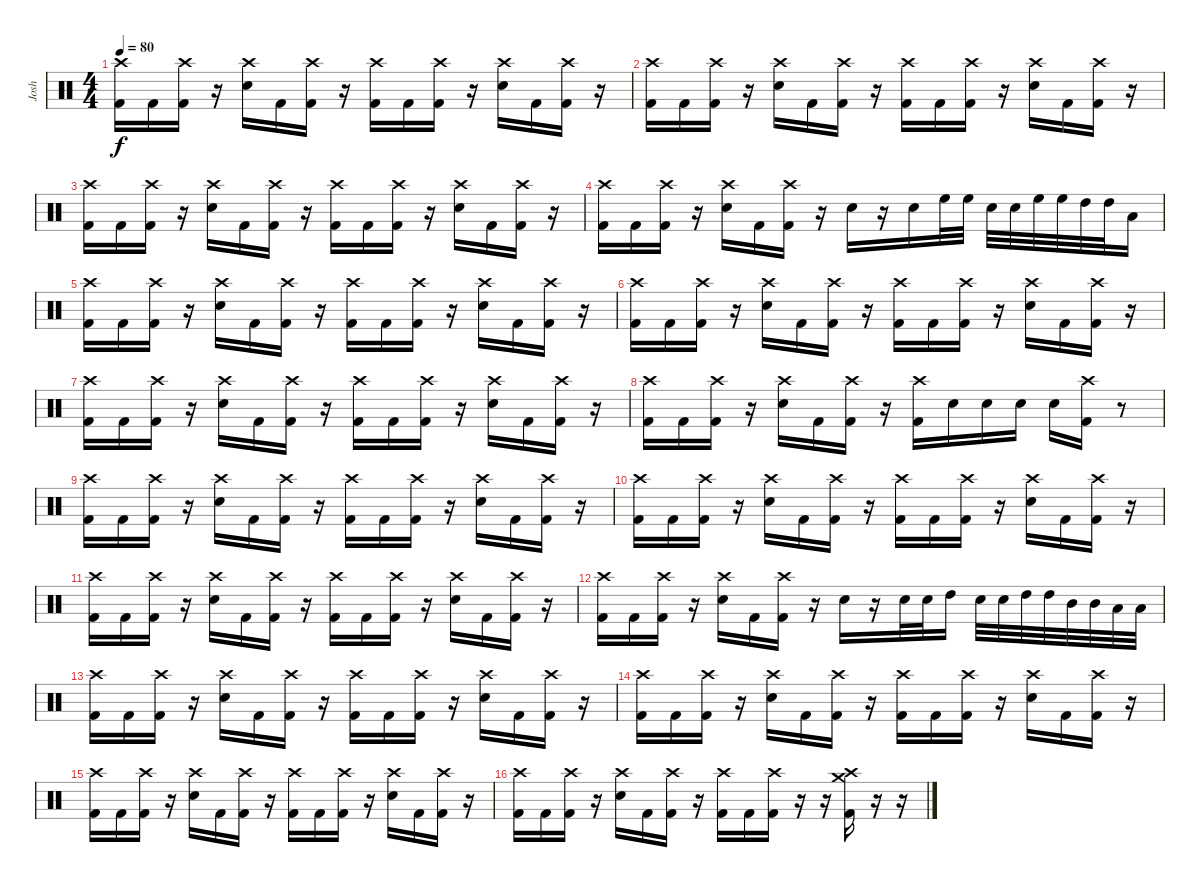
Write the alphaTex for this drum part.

\track ("Josh" "Josh") {instrument percussion}
\staff {score}
\articulation defaults
\ts (4 4)
\tempo 80
\clef neutral
\ks c
("Crash high (hit)" "Kick (hit) 2").16{dy f} "Kick (hit) 2".16 ("Crash high (hit)" "Kick (hit) 2").16 r.16 ("Crash high (hit)" "Electric Snare (hit)").16 "Kick (hit) 2".16 ("Crash high (hit)" "Kick (hit) 2").16 r.16 ("Crash high (hit)" "Kick (hit) 2").16 "Kick (hit) 2".16 ("Crash high (hit)" "Kick (hit) 2").16 r.16 ("Crash high (hit)" "Electric Snare (hit)").16 "Kick (hit) 2".16 ("Crash high (hit)" "Kick (hit) 2").16 r.16 |
("Crash high (hit)" "Kick (hit) 2").16 "Kick (hit) 2".16 ("Crash high (hit)" "Kick (hit) 2").16 r.16 ("Crash high (hit)" "Electric Snare (hit)").16 "Kick (hit) 2".16 ("Crash high (hit)" "Kick (hit) 2").16 r.16 ("Crash high (hit)" "Kick (hit) 2").16 "Kick (hit) 2".16 ("Crash high (hit)" "Kick (hit) 2").16 r.16 ("Crash high (hit)" "Electric Snare (hit)").16 "Kick (hit) 2".16 ("Crash high (hit)" "Kick (hit) 2").16 r.16 |
("Crash high (hit)" "Kick (hit) 2").16 "Kick (hit) 2".16 ("Crash high (hit)" "Kick (hit) 2").16 r.16 ("Crash high (hit)" "Electric Snare (hit)").16 "Kick (hit) 2".16 ("Crash high (hit)" "Kick (hit) 2").16 r.16 ("Crash high (hit)" "Kick (hit) 2").16 "Kick (hit) 2".16 ("Crash high (hit)" "Kick (hit) 2").16 r.16 ("Crash high (hit)" "Electric Snare (hit)").16 "Kick (hit) 2".16 ("Crash high (hit)" "Kick (hit) 2").16 r.16 |
("Crash high (hit)" "Kick (hit) 2").16 "Kick (hit) 2".16 ("Crash high (hit)" "Kick (hit) 2").16 r.16 ("Crash high (hit)" "Electric Snare (hit)").16 "Kick (hit) 2".16 ("Crash high (hit)" "Kick (hit) 2").16 r.16 "Electric Snare (hit)".16 r.16 "Electric Snare (hit)".16 "High Floor Tom (hit)".32 "High Floor Tom (hit)".32 "Electric Snare (hit)".32 "Electric Snare (hit)".32 "High Floor Tom (hit)".32 "High Floor Tom (hit)".32 "High Tom (hit)".32 "High Tom (hit)".32 "Low Floor Tom (hit)".16 |
("Crash high (hit)" "Kick (hit) 2").16 "Kick (hit) 2".16 ("Crash high (hit)" "Kick (hit) 2").16 r.16 ("Crash high (hit)" "Electric Snare (hit)").16 "Kick (hit) 2".16 ("Crash high (hit)" "Kick (hit) 2").16 r.16 ("Crash high (hit)" "Kick (hit) 2").16 "Kick (hit) 2".16 ("Crash high (hit)" "Kick (hit) 2").16 r.16 ("Crash high (hit)" "Electric Snare (hit)").16 "Kick (hit) 2".16 ("Crash high (hit)" "Kick (hit) 2").16 r.16 |
("Crash high (hit)" "Kick (hit) 2").16 "Kick (hit) 2".16 ("Crash high (hit)" "Kick (hit) 2").16 r.16 ("Crash high (hit)" "Electric Snare (hit)").16 "Kick (hit) 2".16 ("Crash high (hit)" "Kick (hit) 2").16 r.16 ("Crash high (hit)" "Kick (hit) 2").16 "Kick (hit) 2".16 ("Crash high (hit)" "Kick (hit) 2").16 r.16 ("Crash high (hit)" "Electric Snare (hit)").16 "Kick (hit) 2".16 ("Crash high (hit)" "Kick (hit) 2").16 r.16 |
("Crash high (hit)" "Kick (hit) 2").16 "Kick (hit) 2".16 ("Crash high (hit)" "Kick (hit) 2").16 r.16 ("Crash high (hit)" "Electric Snare (hit)").16 "Kick (hit) 2".16 ("Crash high (hit)" "Kick (hit) 2").16 r.16 ("Crash high (hit)" "Kick (hit) 2").16 "Kick (hit) 2".16 ("Crash high (hit)" "Kick (hit) 2").16 r.16 ("Crash high (hit)" "Electric Snare (hit)").16 "Kick (hit) 2".16 ("Crash high (hit)" "Kick (hit) 2").16 r.16 |
("Crash high (hit)" "Kick (hit) 2").16 "Kick (hit) 2".16 ("Crash high (hit)" "Kick (hit) 2").16 r.16 ("Crash high (hit)" "Electric Snare (hit)").16 "Kick (hit) 2".16 ("Crash high (hit)" "Kick (hit) 2").16 r.16 ("Crash high (hit)" "Kick (hit) 2").16 "Electric Snare (hit)".16 "Electric Snare (hit)".16 "Electric Snare (hit)".16 "Electric Snare (hit)".16 ("Crash high (hit)" "Kick (hit) 2").16 r.8 |
("Crash high (hit)" "Kick (hit) 2").16 "Kick (hit) 2".16 ("Crash high (hit)" "Kick (hit) 2").16 r.16 ("Crash high (hit)" "Electric Snare (hit)").16 "Kick (hit) 2".16 ("Crash high (hit)" "Kick (hit) 2").16 r.16 ("Crash high (hit)" "Kick (hit) 2").16 "Kick (hit) 2".16 ("Crash high (hit)" "Kick (hit) 2").16 r.16 ("Crash high (hit)" "Electric Snare (hit)").16 "Kick (hit) 2".16 ("Crash high (hit)" "Kick (hit) 2").16 r.16 |
("Crash high (hit)" "Kick (hit) 2").16 "Kick (hit) 2".16 ("Crash high (hit)" "Kick (hit) 2").16 r.16 ("Crash high (hit)" "Electric Snare (hit)").16 "Kick (hit) 2".16 ("Crash high (hit)" "Kick (hit) 2").16 r.16 ("Crash high (hit)" "Kick (hit) 2").16 "Kick (hit) 2".16 ("Crash high (hit)" "Kick (hit) 2").16 r.16 ("Crash high (hit)" "Electric Snare (hit)").16 "Kick (hit) 2".16 ("Crash high (hit)" "Kick (hit) 2").16 r.16 |
("Crash high (hit)" "Kick (hit) 2").16 "Kick (hit) 2".16 ("Crash high (hit)" "Kick (hit) 2").16 r.16 ("Crash high (hit)" "Electric Snare (hit)").16 "Kick (hit) 2".16 ("Crash high (hit)" "Kick (hit) 2").16 r.16 ("Crash high (hit)" "Kick (hit) 2").16 "Kick (hit) 2".16 ("Crash high (hit)" "Kick (hit) 2").16 r.16 ("Crash high (hit)" "Electric Snare (hit)").16 "Kick (hit) 2".16 ("Crash high (hit)" "Kick (hit) 2").16 r.16 |
("Crash high (hit)" "Kick (hit) 2").16 "Kick (hit) 2".16 ("Crash high (hit)" "Kick (hit) 2").16 r.16 ("Crash high (hit)" "Electric Snare (hit)").16 "Kick (hit) 2".16 ("Crash high (hit)" "Kick (hit) 2").16 r.16 "Electric Snare (hit)".16 r.16 "Electric Snare (hit)".32 "Electric Snare (hit)".32 "High Tom (hit)".16 "Electric Snare (hit)".32 "Electric Snare (hit)".32 "High Tom (hit)".32 "High Tom (hit)".32 "Mid Tom (hit)".32 "Mid Tom (hit)".32 "Low Floor Tom (hit)".32 "Low Floor Tom (hit)".32 |
("Crash high (hit)" "Kick (hit) 2").16 "Kick (hit) 2".16 ("Crash high (hit)" "Kick (hit) 2").16 r.16 ("Crash high (hit)" "Electric Snare (hit)").16 "Kick (hit) 2".16 ("Crash high (hit)" "Kick (hit) 2").16 r.16 ("Crash high (hit)" "Kick (hit) 2").16 "Kick (hit) 2".16 ("Crash high (hit)" "Kick (hit) 2").16 r.16 ("Crash high (hit)" "Electric Snare (hit)").16 "Kick (hit) 2".16 ("Crash high (hit)" "Kick (hit) 2").16 r.16 |
("Crash high (hit)" "Kick (hit) 2").16 "Kick (hit) 2".16 ("Crash high (hit)" "Kick (hit) 2").16 r.16 ("Crash high (hit)" "Electric Snare (hit)").16 "Kick (hit) 2".16 ("Crash high (hit)" "Kick (hit) 2").16 r.16 ("Crash high (hit)" "Kick (hit) 2").16 "Kick (hit) 2".16 ("Crash high (hit)" "Kick (hit) 2").16 r.16 ("Crash high (hit)" "Electric Snare (hit)").16 "Kick (hit) 2".16 ("Crash high (hit)" "Kick (hit) 2").16 r.16 |
("Crash high (hit)" "Kick (hit) 2").16 "Kick (hit) 2".16 ("Crash high (hit)" "Kick (hit) 2").16 r.16 ("Crash high (hit)" "Electric Snare (hit)").16 "Kick (hit) 2".16 ("Crash high (hit)" "Kick (hit) 2").16 r.16 ("Crash high (hit)" "Kick (hit) 2").16 "Kick (hit) 2".16 ("Crash high (hit)" "Kick (hit) 2").16 r.16 ("Crash high (hit)" "Electric Snare (hit)").16 "Kick (hit) 2".16 ("Crash high (hit)" "Kick (hit) 2").16 r.16 |
("Crash high (hit)" "Kick (hit) 2").16 "Kick (hit) 2".16 ("Crash high (hit)" "Kick (hit) 2").16 r.16 ("Crash high (hit)" "Electric Snare (hit)").16 "Kick (hit) 2".16 ("Crash high (hit)" "Kick (hit) 2").16 r.16 ("Crash high (hit)" "Kick (hit) 2").16 "Kick (hit) 2".16 ("Crash high (hit)" "Kick (hit) 2").16 r.16 r.16 ("Crash high (hit)" "Crash medium (hit)" "Kick (hit) 2").16 r.16 r.16
